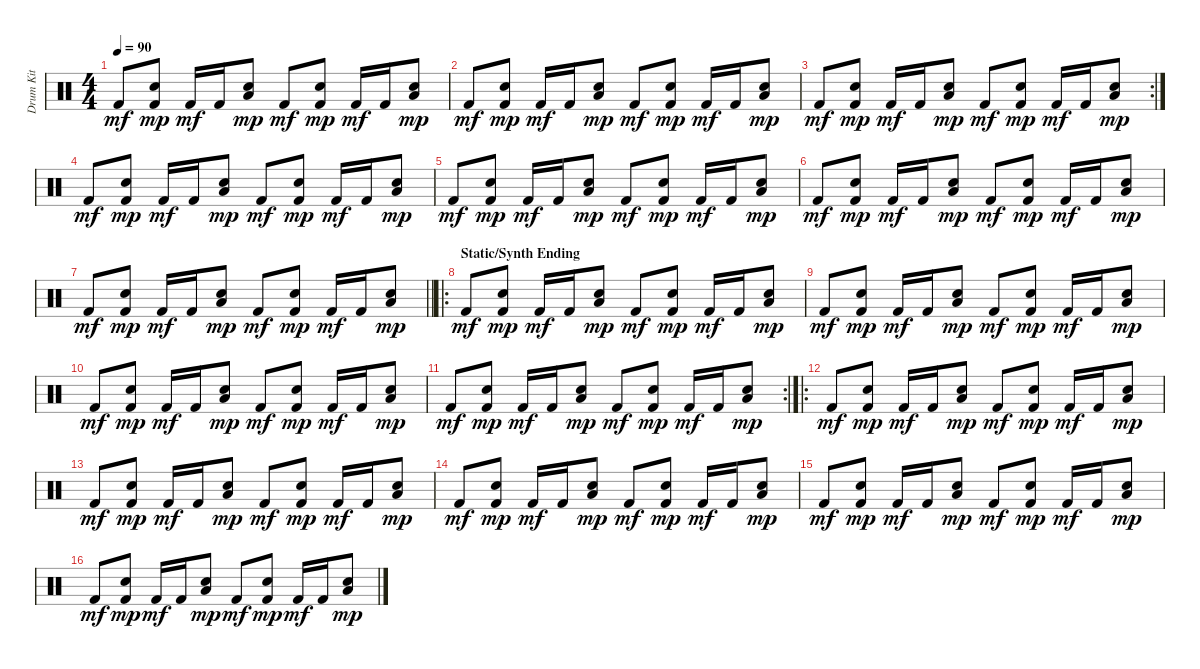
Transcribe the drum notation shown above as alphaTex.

\track ("Drum Kit" "Drum Kit") {instrument percussion}
\staff {score}
\articulation defaults
\ts (4 4)
\tempo 90
\clef neutral
\ks c "Kick (hit) 2".8{dy mf}
("Electric Snare (hit)" "Kick (hit) 2").8{dy mp} "Kick (hit) 2".16{dy mf} "Kick (hit) 2".16 ("Electric Snare (hit)" "Low Tom (hit)").8{bd 60 dy mp} "Kick (hit) 2".8{dy mf} ("Electric Snare (hit)" "Kick (hit) 2").8{dy mp} "Kick (hit) 2".16{dy mf} "Kick (hit) 2".16 ("Electric Snare (hit)" "Low Tom (hit)").8{bd 60 dy mp} |
"Kick (hit) 2".8{dy mf} ("Electric Snare (hit)" "Kick (hit) 2").8{dy mp} "Kick (hit) 2".16{dy mf} "Kick (hit) 2".16 ("Electric Snare (hit)" "Low Tom (hit)").8{bd 60 dy mp} "Kick (hit) 2".8{dy mf} ("Electric Snare (hit)" "Kick (hit) 2").8{dy mp} "Kick (hit) 2".16{dy mf} "Kick (hit) 2".16 ("Electric Snare (hit)" "Low Tom (hit)").8{bd 60 dy mp} |
\rc 2 "Kick (hit) 2".8{dy mf}
("Electric Snare (hit)" "Kick (hit) 2").8{dy mp} "Kick (hit) 2".16{dy mf} "Kick (hit) 2".16 ("Electric Snare (hit)" "Low Tom (hit)").8{bd 60 dy mp} "Kick (hit) 2".8{dy mf} ("Electric Snare (hit)" "Kick (hit) 2").8{dy mp} "Kick (hit) 2".16{dy mf} "Kick (hit) 2".16 ("Electric Snare (hit)" "Low Tom (hit)").8{bd 60 dy mp} |
"Kick (hit) 2".8{dy mf} ("Electric Snare (hit)" "Kick (hit) 2").8{dy mp} "Kick (hit) 2".16{dy mf} "Kick (hit) 2".16 ("Electric Snare (hit)" "Low Tom (hit)").8{bd 60 dy mp} "Kick (hit) 2".8{dy mf} ("Electric Snare (hit)" "Kick (hit) 2").8{dy mp} "Kick (hit) 2".16{dy mf} "Kick (hit) 2".16 ("Electric Snare (hit)" "Low Tom (hit)").8{bd 60 dy mp} |
"Kick (hit) 2".8{dy mf} ("Electric Snare (hit)" "Kick (hit) 2").8{dy mp} "Kick (hit) 2".16{dy mf} "Kick (hit) 2".16 ("Electric Snare (hit)" "Low Tom (hit)").8{bd 60 dy mp} "Kick (hit) 2".8{dy mf} ("Electric Snare (hit)" "Kick (hit) 2").8{dy mp} "Kick (hit) 2".16{dy mf} "Kick (hit) 2".16 ("Electric Snare (hit)" "Low Tom (hit)").8{bd 60 dy mp} |
"Kick (hit) 2".8{dy mf} ("Electric Snare (hit)" "Kick (hit) 2").8{dy mp} "Kick (hit) 2".16{dy mf} "Kick (hit) 2".16 ("Electric Snare (hit)" "Low Tom (hit)").8{bd 60 dy mp} "Kick (hit) 2".8{dy mf} ("Electric Snare (hit)" "Kick (hit) 2").8{dy mp} "Kick (hit) 2".16{dy mf} "Kick (hit) 2".16 ("Electric Snare (hit)" "Low Tom (hit)").8{bd 60 dy mp} |
\barLineRight lightlight "Kick (hit) 2".8{dy mf}
("Electric Snare (hit)" "Kick (hit) 2").8{dy mp} "Kick (hit) 2".16{dy mf} "Kick (hit) 2".16 ("Electric Snare (hit)" "Low Tom (hit)").8{bd 60 dy mp} "Kick (hit) 2".8{dy mf} ("Electric Snare (hit)" "Kick (hit) 2").8{dy mp} "Kick (hit) 2".16{dy mf} "Kick (hit) 2".16 ("Electric Snare (hit)" "Low Tom (hit)").8{bd 60 dy mp} |
\ro
\section ("" "Static/Synth Ending")
"Kick (hit) 2".8{dy mf} ("Electric Snare (hit)" "Kick (hit) 2").8{dy mp} "Kick (hit) 2".16{dy mf} "Kick (hit) 2".16 ("Electric Snare (hit)" "Low Tom (hit)").8{bd 60 dy mp} "Kick (hit) 2".8{dy mf} ("Electric Snare (hit)" "Kick (hit) 2").8{dy mp} "Kick (hit) 2".16{dy mf} "Kick (hit) 2".16 ("Electric Snare (hit)" "Low Tom (hit)").8{bd 60 dy mp} |
"Kick (hit) 2".8{dy mf} ("Electric Snare (hit)" "Kick (hit) 2").8{dy mp} "Kick (hit) 2".16{dy mf} "Kick (hit) 2".16 ("Electric Snare (hit)" "Low Tom (hit)").8{bd 60 dy mp} "Kick (hit) 2".8{dy mf} ("Electric Snare (hit)" "Kick (hit) 2").8{dy mp} "Kick (hit) 2".16{dy mf} "Kick (hit) 2".16 ("Electric Snare (hit)" "Low Tom (hit)").8{bd 60 dy mp} |
"Kick (hit) 2".8{dy mf} ("Electric Snare (hit)" "Kick (hit) 2").8{dy mp} "Kick (hit) 2".16{dy mf} "Kick (hit) 2".16 ("Electric Snare (hit)" "Low Tom (hit)").8{bd 60 dy mp} "Kick (hit) 2".8{dy mf} ("Electric Snare (hit)" "Kick (hit) 2").8{dy mp} "Kick (hit) 2".16{dy mf} "Kick (hit) 2".16 ("Electric Snare (hit)" "Low Tom (hit)").8{bd 60 dy mp} |
\rc 2 "Kick (hit) 2".8{dy mf}
("Electric Snare (hit)" "Kick (hit) 2").8{dy mp} "Kick (hit) 2".16{dy mf} "Kick (hit) 2".16 ("Electric Snare (hit)" "Low Tom (hit)").8{bd 60 dy mp} "Kick (hit) 2".8{dy mf} ("Electric Snare (hit)" "Kick (hit) 2").8{dy mp} "Kick (hit) 2".16{dy mf} "Kick (hit) 2".16 ("Electric Snare (hit)" "Low Tom (hit)").8{bd 60 dy mp} |
\ro "Kick (hit) 2".8{dy mf}
("Electric Snare (hit)" "Kick (hit) 2").8{dy mp} "Kick (hit) 2".16{dy mf} "Kick (hit) 2".16 ("Electric Snare (hit)" "Low Tom (hit)").8{bd 60 dy mp} "Kick (hit) 2".8{dy mf} ("Electric Snare (hit)" "Kick (hit) 2").8{dy mp} "Kick (hit) 2".16{dy mf} "Kick (hit) 2".16 ("Electric Snare (hit)" "Low Tom (hit)").8{bd 60 dy mp} |
"Kick (hit) 2".8{dy mf} ("Electric Snare (hit)" "Kick (hit) 2").8{dy mp} "Kick (hit) 2".16{dy mf} "Kick (hit) 2".16 ("Electric Snare (hit)" "Low Tom (hit)").8{bd 60 dy mp} "Kick (hit) 2".8{dy mf} ("Electric Snare (hit)" "Kick (hit) 2").8{dy mp} "Kick (hit) 2".16{dy mf} "Kick (hit) 2".16 ("Electric Snare (hit)" "Low Tom (hit)").8{bd 60 dy mp} |
"Kick (hit) 2".8{dy mf} ("Electric Snare (hit)" "Kick (hit) 2").8{dy mp} "Kick (hit) 2".16{dy mf} "Kick (hit) 2".16 ("Electric Snare (hit)" "Low Tom (hit)").8{bd 60 dy mp} "Kick (hit) 2".8{dy mf} ("Electric Snare (hit)" "Kick (hit) 2").8{dy mp} "Kick (hit) 2".16{dy mf} "Kick (hit) 2".16 ("Electric Snare (hit)" "Low Tom (hit)").8{bd 60 dy mp} |
"Kick (hit) 2".8{dy mf} ("Electric Snare (hit)" "Kick (hit) 2").8{dy mp} "Kick (hit) 2".16{dy mf} "Kick (hit) 2".16 ("Electric Snare (hit)" "Low Tom (hit)").8{bd 60 dy mp} "Kick (hit) 2".8{dy mf} ("Electric Snare (hit)" "Kick (hit) 2").8{dy mp} "Kick (hit) 2".16{dy mf} "Kick (hit) 2".16 ("Electric Snare (hit)" "Low Tom (hit)").8{bd 60 dy mp} |
"Kick (hit) 2".8{dy mf} ("Electric Snare (hit)" "Kick (hit) 2").8{dy mp} "Kick (hit) 2".16{dy mf} "Kick (hit) 2".16 ("Electric Snare (hit)" "Low Tom (hit)").8{bd 60 dy mp} "Kick (hit) 2".8{dy mf} ("Electric Snare (hit)" "Kick (hit) 2").8{dy mp} "Kick (hit) 2".16{dy mf} "Kick (hit) 2".16 ("Electric Snare (hit)" "Low Tom (hit)").8{bd 60 dy mp}
